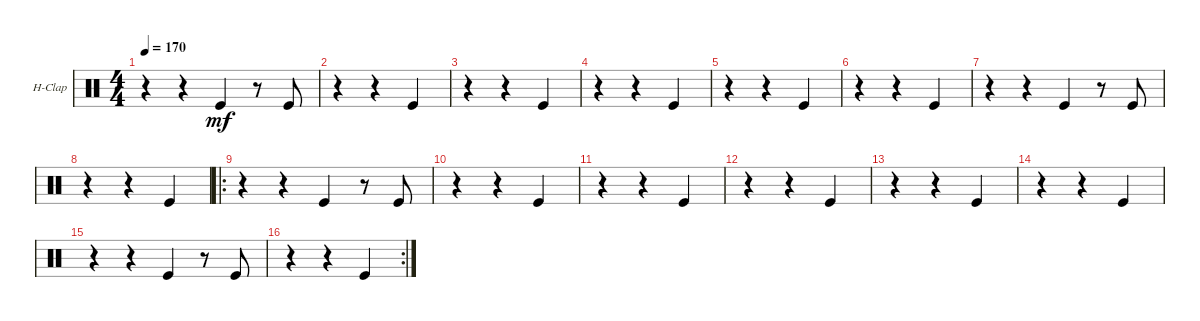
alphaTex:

\defaultSystemsLayout 4
\bracketExtendMode groupsimilarinstruments
\firstSystemTrackNameOrientation horizontal
\otherSystemsTrackNameOrientation horizontal
\track ("Hand Clap" "H-Clap") {instrument percussion}
\staff {score}
\articulation defaults
\ts (4 4)
\tempo 170
\clef neutral
\ks c
r.4{dy mf} r.4 "Kick (hit)".4 r.8 "Kick (hit)".8 |
r.4 r.4 "Kick (hit)".4 |
r.4 r.4 "Kick (hit)".4 |
r.4 r.4 "Kick (hit)".4 |
r.4 r.4 "Kick (hit)".4 |
r.4 r.4 "Kick (hit)".4 |
r.4 r.4 "Kick (hit)".4 r.8 "Kick (hit)".8 |
r.4 r.4 "Kick (hit)".4 |
\ro
r.4 r.4 "Kick (hit)".4 r.8 "Kick (hit)".8 |
r.4 r.4 "Kick (hit)".4 |
r.4 r.4 "Kick (hit)".4 |
r.4 r.4 "Kick (hit)".4 |
r.4 r.4 "Kick (hit)".4 |
r.4 r.4 "Kick (hit)".4 |
r.4 r.4 "Kick (hit)".4 r.8 "Kick (hit)".8 |
\rc 2
r.4 r.4 "Kick (hit)".4
